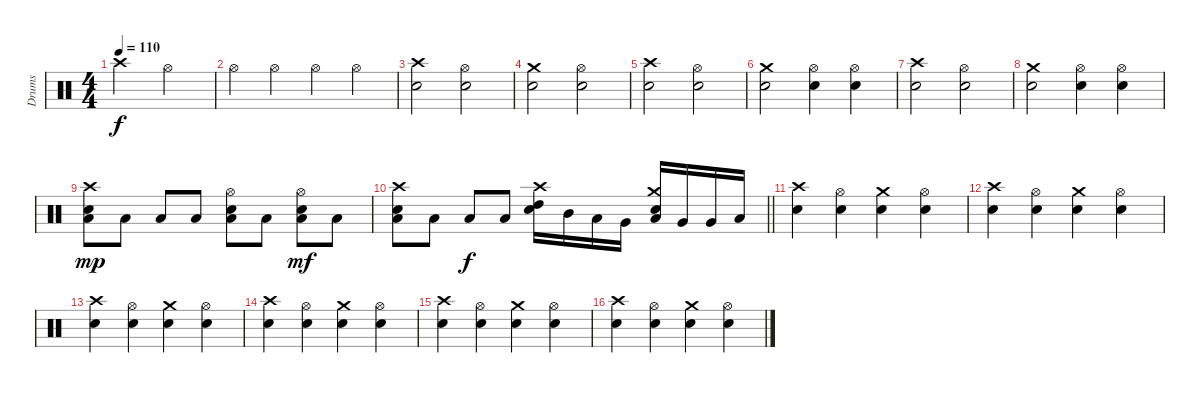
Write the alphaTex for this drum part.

\track ("Drums" "Drums") {instrument percussion}
\staff {score}
\articulation defaults
\ts (4 4)
\tempo 110
\clef neutral
\ks c "Crash high (hit)".2{dy f} "Hi-Hat (open)".2
|
"Hi-Hat (open)".4 "Hi-Hat (open)".4 "Hi-Hat (open)".4 "Hi-Hat (open)".4 |
("Crash high (hit)" "Snare (hit) 2").2 ("Hi-Hat (open)" "Snare (hit) 2").2 |
("Crash medium (hit)" "Snare (hit) 2").2 ("Hi-Hat (open)" "Snare (hit) 2").2 |
("Crash high (hit)" "Snare (hit) 2").2 ("Hi-Hat (open)" "Snare (hit) 2").2 |
("Crash medium (hit)" "Snare (hit) 2").2 ("Hi-Hat (open)" "Snare (hit) 2").4 ("Hi-Hat (open)" "Snare (hit) 2").4 |
("Crash high (hit)" "Snare (hit) 2").2 ("Hi-Hat (open)" "Snare (hit) 2").2 |
("Crash medium (hit)" "Snare (hit) 2").2 ("Hi-Hat (open)" "Snare (hit) 2").4 ("Hi-Hat (open)" "Snare (hit) 2").4 |
("Crash high (hit)" "Low Tom (hit)" "Snare (hit) 2").8{dy mp} "Low Tom (hit)".8 "Low Tom (hit)".8 "Low Tom (hit)".8 ("Hi-Hat (open)" "Low Tom (hit)" "Snare (hit) 2").8 "Low Tom (hit)".8 ("Hi-Hat (open)" "Low Tom (hit)" "Snare (hit) 2").8{dy mf} "Low Tom (hit)".8 |
\barLineRight lightlight
("Crash high (hit)" "Low Tom (hit)" "Snare (hit) 2").8 "Low Tom (hit)".8 "Low Tom (hit)".8{dy f} "Low Tom (hit)".8 ("Crash high (hit)" "High Tom (hit)" "Snare (hit) 2").16 "Mid Tom (hit)".16 "Low Tom (hit)".16 "Very Low Tom (hit)".16 ("Crash medium (hit)" "Low Tom (hit)" "Snare (hit) 2").16 "Very Low Tom (hit)".16 "Very Low Tom (hit)".16 "Low Floor Tom (hit)".16 |
\section ("" "")
("Crash high (hit)" "Snare (hit) 2").4 ("Hi-Hat (open)" "Snare (hit) 2").4 ("Crash medium (hit)" "Snare (hit) 2").4 ("Hi-Hat (open)" "Snare (hit) 2").4 |
("Crash high (hit)" "Snare (hit) 2").4 ("Hi-Hat (open)" "Snare (hit) 2").4 ("Crash medium (hit)" "Snare (hit) 2").4 ("Hi-Hat (open)" "Snare (hit) 2").4 |
("Crash high (hit)" "Snare (hit) 2").4 ("Hi-Hat (open)" "Snare (hit) 2").4 ("Crash medium (hit)" "Snare (hit) 2").4 ("Hi-Hat (open)" "Snare (hit) 2").4 |
("Crash high (hit)" "Snare (hit) 2").4 ("Hi-Hat (open)" "Snare (hit) 2").4 ("Crash medium (hit)" "Snare (hit) 2").4 ("Hi-Hat (open)" "Snare (hit) 2").4 |
("Crash high (hit)" "Snare (hit) 2").4 ("Hi-Hat (open)" "Snare (hit) 2").4 ("Crash medium (hit)" "Snare (hit) 2").4 ("Hi-Hat (open)" "Snare (hit) 2").4 |
("Crash high (hit)" "Snare (hit) 2").4 ("Hi-Hat (open)" "Snare (hit) 2").4 ("Crash medium (hit)" "Snare (hit) 2").4 ("Hi-Hat (open)" "Snare (hit) 2").4
